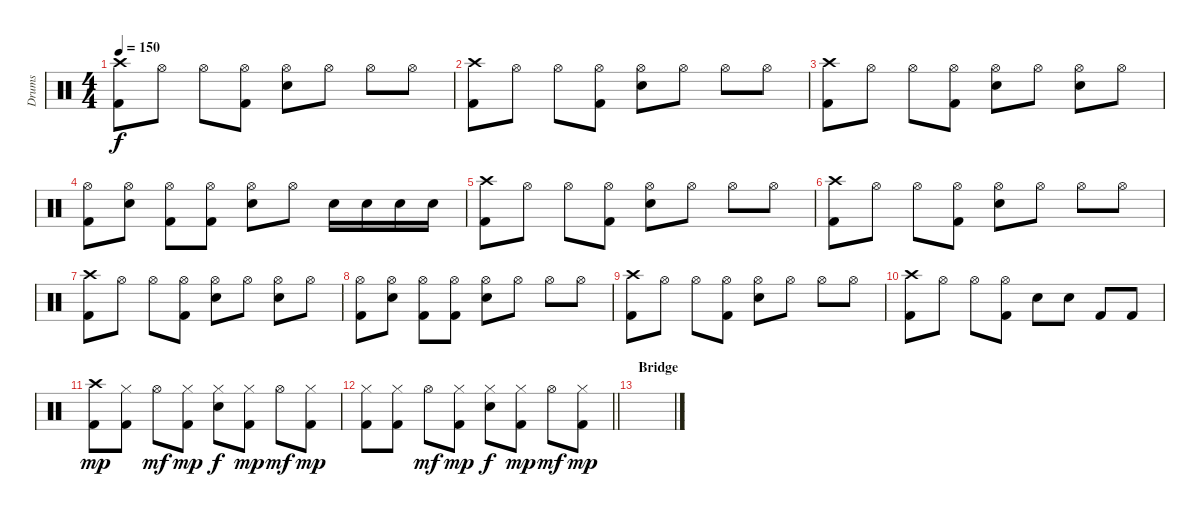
\track ("Drums" "Drums") {instrument percussion}
\staff {score}
\articulation defaults
\ts (4 4)
\tempo 150
\clef neutral
\ks c
("Crash high (hit)" "Kick (hit) 2").8{dy f} "Hi-Hat (open)".8 "Hi-Hat (open)".8 ("Hi-Hat (open)" "Kick (hit) 2").8 ("Hi-Hat (open)" "Electric Snare (hit)").8 "Hi-Hat (open)".8 "Hi-Hat (open)".8 "Hi-Hat (open)".8 |
("Crash high (hit)" "Kick (hit) 2").8 "Hi-Hat (open)".8 "Hi-Hat (open)".8 ("Hi-Hat (open)" "Kick (hit) 2").8 ("Hi-Hat (open)" "Electric Snare (hit)").8 "Hi-Hat (open)".8 "Hi-Hat (open)".8 "Hi-Hat (open)".8 |
("Crash high (hit)" "Kick (hit) 2").8 "Hi-Hat (open)".8 "Hi-Hat (open)".8 ("Hi-Hat (open)" "Kick (hit) 2").8 ("Hi-Hat (open)" "Electric Snare (hit)").8 "Hi-Hat (open)".8 ("Hi-Hat (open)" "Electric Snare (hit)").8 "Hi-Hat (open)".8 |
("Hi-Hat (open)" "Kick (hit) 2").8 ("Hi-Hat (open)" "Electric Snare (hit)").8 ("Hi-Hat (open)" "Kick (hit) 2").8 ("Hi-Hat (open)" "Kick (hit) 2").8 ("Hi-Hat (open)" "Electric Snare (hit)").8 "Hi-Hat (open)".8 "Electric Snare (hit)".16 "Electric Snare (hit)".16 "Electric Snare (hit)".16 "Electric Snare (hit)".16 |
("Crash high (hit)" "Kick (hit) 2").8 "Hi-Hat (open)".8 "Hi-Hat (open)".8 ("Hi-Hat (open)" "Kick (hit) 2").8 ("Hi-Hat (open)" "Electric Snare (hit)").8 "Hi-Hat (open)".8 "Hi-Hat (open)".8 "Hi-Hat (open)".8 |
("Crash high (hit)" "Kick (hit) 2").8 "Hi-Hat (open)".8 "Hi-Hat (open)".8 ("Hi-Hat (open)" "Kick (hit) 2").8 ("Hi-Hat (open)" "Electric Snare (hit)").8 "Hi-Hat (open)".8 "Hi-Hat (open)".8 "Hi-Hat (open)".8 |
("Crash high (hit)" "Kick (hit) 2").8 "Hi-Hat (open)".8 "Hi-Hat (open)".8 ("Hi-Hat (open)" "Kick (hit) 2").8 ("Hi-Hat (open)" "Electric Snare (hit)").8 "Hi-Hat (open)".8 ("Hi-Hat (open)" "Electric Snare (hit)").8 "Hi-Hat (open)".8 |
("Hi-Hat (open)" "Kick (hit) 2").8 ("Hi-Hat (open)" "Electric Snare (hit)").8 ("Hi-Hat (open)" "Kick (hit) 2").8 ("Hi-Hat (open)" "Kick (hit) 2").8 ("Hi-Hat (open)" "Electric Snare (hit)").8 "Hi-Hat (open)".8 "Hi-Hat (open)".8 "Hi-Hat (open)".8 |
("Crash high (hit)" "Kick (hit) 2").8 "Hi-Hat (open)".8 "Hi-Hat (open)".8 ("Hi-Hat (open)" "Kick (hit) 2").8 ("Hi-Hat (open)" "Electric Snare (hit)").8 "Hi-Hat (open)".8 "Hi-Hat (open)".8 "Hi-Hat (open)".8 |
("Crash high (hit)" "Kick (hit) 2").8 "Hi-Hat (open)".8 "Hi-Hat (open)".8 ("Hi-Hat (open)" "Kick (hit) 2").8 "Electric Snare (hit)".8 "Electric Snare (hit)".8 "Kick (hit) 2".8 "Kick (hit) 2".8 |
("Crash high (hit)" "Kick (hit) 2").8{dy mp} ("Hi-Hat (closed)" "Kick (hit) 2").8 "Hi-Hat (open)".8{dy mf} ("Hi-Hat (closed)" "Kick (hit) 2").8{dy mp} ("Hi-Hat (closed)" "Electric Snare (hit)").8{dy f} ("Hi-Hat (closed)" "Kick (hit) 2").8{dy mp} "Hi-Hat (open)".8{dy mf} ("Hi-Hat (closed)" "Kick (hit) 2").8{dy mp} |
\barLineRight lightlight
("Hi-Hat (closed)" "Kick (hit) 2").8 ("Hi-Hat (closed)" "Kick (hit) 2").8 "Hi-Hat (open)".8{dy mf} ("Hi-Hat (closed)" "Kick (hit) 2").8{dy mp} ("Hi-Hat (closed)" "Electric Snare (hit)").8{dy f} ("Hi-Hat (closed)" "Kick (hit) 2").8{dy mp} "Hi-Hat (open)".8{dy mf} ("Hi-Hat (closed)" "Kick (hit) 2").8{dy mp} |
\section ("" "Bridge")
